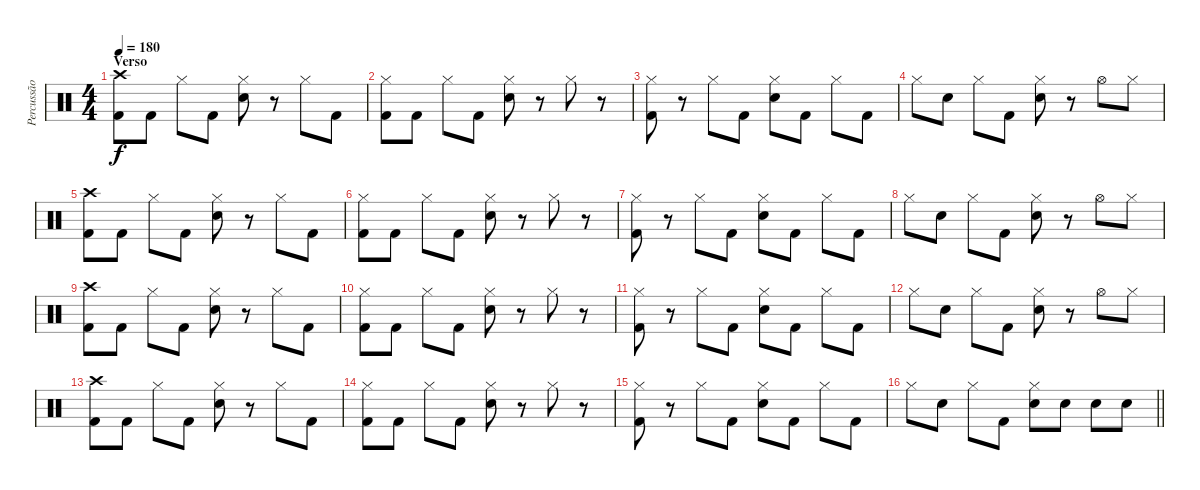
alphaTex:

\track ("Percussão" "Percussão") {instrument percussion}
\staff {score}
\articulation defaults
\ts (4 4)
\section ("" "Verso")
\tempo 180
\clef neutral
\ks c
("Crash high (hit)" "Kick (hit) 2").8{dy f} "Kick (hit) 2".8 "Hi-Hat (closed)".8 "Kick (hit) 2".8 ("Hi-Hat (closed)" "Electric Snare (hit)").8 r.8 "Hi-Hat (closed)".8 "Kick (hit) 2".8 |
("Hi-Hat (closed)" "Kick (hit) 2").8 "Kick (hit) 2".8 "Hi-Hat (closed)".8 "Kick (hit) 2".8 ("Hi-Hat (closed)" "Electric Snare (hit)").8 r.8 "Hi-Hat (closed)".8 r.8 |
("Hi-Hat (closed)" "Kick (hit) 2").8 r.8 "Hi-Hat (closed)".8 "Kick (hit) 2".8 ("Hi-Hat (closed)" "Electric Snare (hit)").8 "Kick (hit) 2".8 "Hi-Hat (closed)".8 "Kick (hit) 2".8 |
"Hi-Hat (closed)".8 "Electric Snare (hit)".8 "Hi-Hat (closed)".8 "Kick (hit) 2".8 ("Hi-Hat (closed)" "Electric Snare (hit)").8 r.8 "Hi-Hat (open)".8 "Hi-Hat (closed)".8 |
("Crash high (hit)" "Kick (hit) 2").8 "Kick (hit) 2".8 "Hi-Hat (closed)".8 "Kick (hit) 2".8 ("Hi-Hat (closed)" "Electric Snare (hit)").8 r.8 "Hi-Hat (closed)".8 "Kick (hit) 2".8 |
("Hi-Hat (closed)" "Kick (hit) 2").8 "Kick (hit) 2".8 "Hi-Hat (closed)".8 "Kick (hit) 2".8 ("Hi-Hat (closed)" "Electric Snare (hit)").8 r.8 "Hi-Hat (closed)".8 r.8 |
("Hi-Hat (closed)" "Kick (hit) 2").8 r.8 "Hi-Hat (closed)".8 "Kick (hit) 2".8 ("Hi-Hat (closed)" "Electric Snare (hit)").8 "Kick (hit) 2".8 "Hi-Hat (closed)".8 "Kick (hit) 2".8 |
"Hi-Hat (closed)".8 "Electric Snare (hit)".8 "Hi-Hat (closed)".8 "Kick (hit) 2".8 ("Hi-Hat (closed)" "Electric Snare (hit)").8 r.8 "Hi-Hat (open)".8 "Hi-Hat (closed)".8 |
("Crash high (hit)" "Kick (hit) 2").8 "Kick (hit) 2".8 "Hi-Hat (closed)".8 "Kick (hit) 2".8 ("Hi-Hat (closed)" "Electric Snare (hit)").8 r.8 "Hi-Hat (closed)".8 "Kick (hit) 2".8 |
("Hi-Hat (closed)" "Kick (hit) 2").8 "Kick (hit) 2".8 "Hi-Hat (closed)".8 "Kick (hit) 2".8 ("Hi-Hat (closed)" "Electric Snare (hit)").8 r.8 "Hi-Hat (closed)".8 r.8 |
("Hi-Hat (closed)" "Kick (hit) 2").8 r.8 "Hi-Hat (closed)".8 "Kick (hit) 2".8 ("Hi-Hat (closed)" "Electric Snare (hit)").8 "Kick (hit) 2".8 "Hi-Hat (closed)".8 "Kick (hit) 2".8 |
"Hi-Hat (closed)".8 "Electric Snare (hit)".8 "Hi-Hat (closed)".8 "Kick (hit) 2".8 ("Hi-Hat (closed)" "Electric Snare (hit)").8 r.8 "Hi-Hat (open)".8 "Hi-Hat (closed)".8 |
("Crash high (hit)" "Kick (hit) 2").8 "Kick (hit) 2".8 "Hi-Hat (closed)".8 "Kick (hit) 2".8 ("Hi-Hat (closed)" "Electric Snare (hit)").8 r.8 "Hi-Hat (closed)".8 "Kick (hit) 2".8 |
("Hi-Hat (closed)" "Kick (hit) 2").8 "Kick (hit) 2".8 "Hi-Hat (closed)".8 "Kick (hit) 2".8 ("Hi-Hat (closed)" "Electric Snare (hit)").8 r.8 "Hi-Hat (closed)".8 r.8 |
("Hi-Hat (closed)" "Kick (hit) 2").8 r.8 "Hi-Hat (closed)".8 "Kick (hit) 2".8 ("Hi-Hat (closed)" "Electric Snare (hit)").8 "Kick (hit) 2".8 "Hi-Hat (closed)".8 "Kick (hit) 2".8 |
\barLineRight lightlight "Hi-Hat (closed)".8 "Electric Snare (hit)".8 "Hi-Hat (closed)".8 "Kick (hit) 2".8
("Hi-Hat (closed)" "Electric Snare (hit)").8 "Electric Snare (hit)".8 "Electric Snare (hit)".8 "Electric Snare (hit)".8
